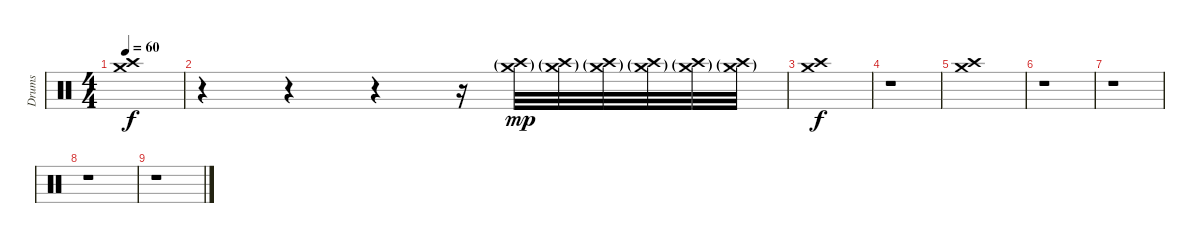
\track ("Drums" "Drums") {instrument percussion}
\staff {score}
\articulation defaults
\ts (4 4)
\tempo 60
\clef neutral
\ks c
("Crash high (hit)" "Crash medium (hit)").1{dy f} |
r.4 r.4 r.4 r.16 ("Crash medium (hit)"{g} "Crash high (hit)"{g}).32{dy mp} ("Crash medium (hit)"{g} "Crash high (hit)"{g}).32 ("Crash medium (hit)"{g} "Crash high (hit)"{g}).32 ("Crash medium (hit)"{g} "Crash high (hit)"{g}).32 ("Crash medium (hit)"{g} "Crash high (hit)"{g}).32 ("Crash medium (hit)"{g} "Crash high (hit)"{g}).32 |
("Crash medium (hit)" "Crash high (hit)").1{dy f} |
r.1 |
("Crash medium (hit)" "Crash high (hit)").1 |
r.1 |
r.1 |
r.1 |
r.1
